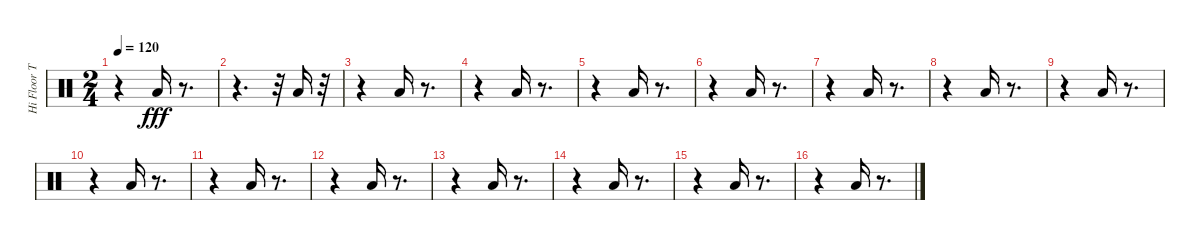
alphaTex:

\track ("Hi Floor Tom (1) (1) (1) (1)" "Hi Floor T") {instrument percussion}
\staff {score}
\articulation defaults
\ts (2 4)
\tempo 120
\clef neutral
\ks c
r.4{dy fff} "Low Floor Tom (hit)".16 r.8{d} |
r.4{d} r.32 "Low Floor Tom (hit)".16 r.32 |
r.4 "Low Floor Tom (hit)".16 r.8{d} |
r.4 "Low Floor Tom (hit)".16 r.8{d} |
r.4 "Low Floor Tom (hit)".16 r.8{d} |
r.4 "Low Floor Tom (hit)".16 r.8{d} |
r.4 "Low Floor Tom (hit)".16 r.8{d} |
r.4 "Low Floor Tom (hit)".16 r.8{d} |
r.4 "Low Floor Tom (hit)".16 r.8{d} |
r.4 "Low Floor Tom (hit)".16 r.8{d} |
r.4 "Low Floor Tom (hit)".16 r.8{d} |
r.4 "Low Floor Tom (hit)".16 r.8{d} |
r.4 "Low Floor Tom (hit)".16 r.8{d} |
r.4 "Low Floor Tom (hit)".16 r.8{d} |
r.4 "Low Floor Tom (hit)".16 r.8{d} |
r.4 "Low Floor Tom (hit)".16 r.8{d}
